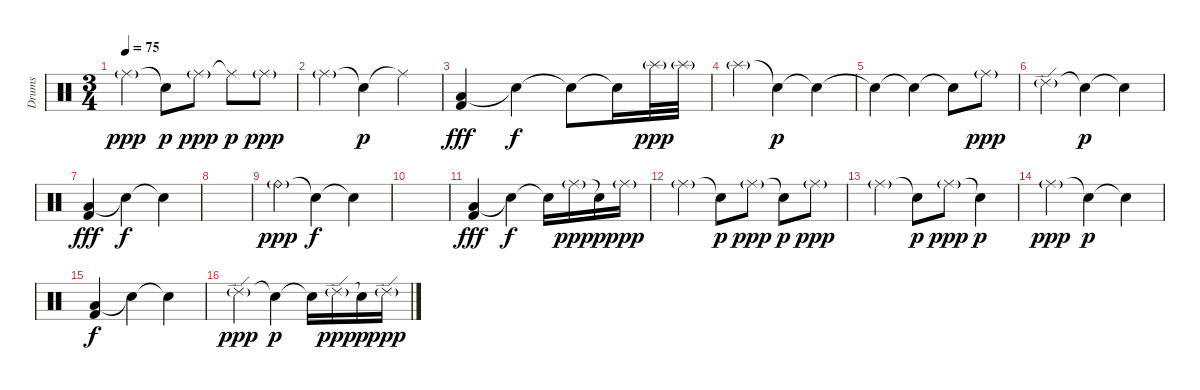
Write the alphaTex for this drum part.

\track ("Drums" "Drums") {instrument percussion}
\staff {score}
\articulation defaults
\ts (3 4)
\tempo 75
\clef neutral
\ks c "Ride (middle)"{g}.4{dy ppp} "Snare (hit)"{t}.8{dy p} "Ride (middle)"{g}.8{dy ppp} "Ride (middle)"{t}.8{dy p} "Ride (middle)"{g}.8{dy ppp}
|
"Ride (middle)"{g}.4 "Snare (hit)"{t}.4{dy p} "Ride (middle)"{t}.4 |
("Low Tom (hit)" "Kick (hit) 2").4{dy fff} "Snare (hit)"{t}.4{dy f} "Snare (hit)"{t}.8 "Snare (hit)"{t}.16 "Splash (hit)"{g}.32{dy ppp} "Splash (hit)"{g}.32 |
"Splash (hit)"{g}.4 "Snare (hit)"{t}.4{dy p} "Snare (hit)"{t}.4 |
"Snare (hit)"{t}.4 "Snare (hit)"{t}.4 "Snare (hit)"{t}.8 "Ride (middle)"{g}.8{dy ppp} |
"Ride (edge) 2"{g}.4 "Snare (hit)"{t}.4{dy p} "Snare (hit)"{t}.4 |
("Low Tom (hit)" "Kick (hit) 2").4{dy fff} "Snare (hit)"{t}.4{dy f} "Snare (hit)"{t}.4 |
|
"Ride (bell)"{g}.4{dy ppp} "Snare (hit)"{t}.4{dy f} "Snare (hit)"{t}.4 |
|
("Low Tom (hit)" "Kick (hit) 2").4{dy fff} "Snare (hit)"{t}.4{dy f} "Snare (hit)"{t}.16 "Ride (middle)"{g}.16{dy ppp} "Snare (hit)"{t}.16{dy p} "Ride (middle)"{g}.16{dy ppp} |
"Ride (middle)"{g}.4 "Snare (hit)"{t}.8{dy p} "Ride (middle)"{g}.8{dy ppp} "Snare (hit)"{t}.8{dy p} "Ride (middle)"{g}.8{dy ppp} |
"Ride (middle)"{g}.4 "Snare (hit)"{t}.8{dy p} "Ride (middle)"{g}.8{dy ppp} "Snare (hit)"{t}.4{dy p} |
"Ride (middle)"{g}.4{dy ppp} "Snare (hit)"{t}.4{dy p} "Snare (hit)"{t}.4 |
("Low Tom (hit)" "Kick (hit) 2").4{dy f} "Snare (hit)"{t}.4 "Snare (hit)"{t}.4 |
"Ride (edge) 2"{g}.4{dy ppp} "Snare (hit)"{t}.4{dy p} "Snare (hit)"{t}.16 "Ride (edge) 2"{g}.16{dy ppp} "Snare (hit)"{t}.16{dy p} "Ride (edge) 2"{g}.16{dy ppp}
